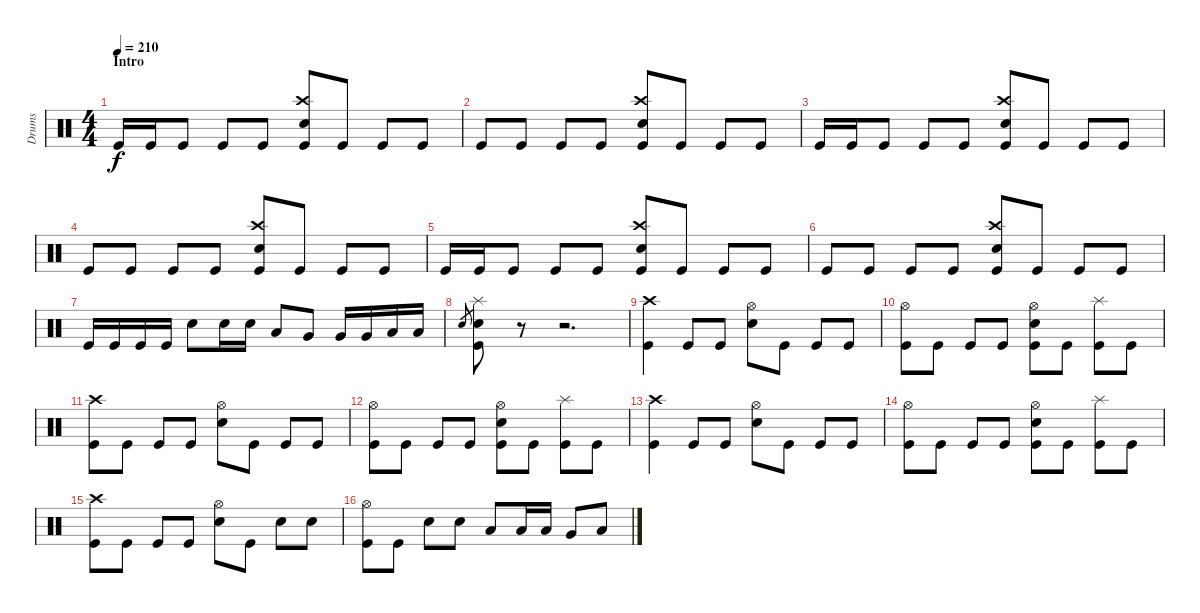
\track ("Drums" "Drums") {instrument percussion}
\staff {score}
\articulation defaults
\ts (4 4)
\section ("" "Intro")
\tempo 210
\clef neutral
\ks c "Kick (hit)".16{dy f} "Kick (hit)".16 "Kick (hit)".8 "Kick (hit)".8 "Kick (hit)".8
("Crash high (hit)" "Snare (hit) 2" "Kick (hit)").8 "Kick (hit)".8 "Kick (hit)".8 "Kick (hit)".8 |
"Kick (hit)".8 "Kick (hit)".8 "Kick (hit)".8 "Kick (hit)".8 ("Crash high (hit)" "Snare (hit) 2" "Kick (hit)").8 "Kick (hit)".8 "Kick (hit)".8 "Kick (hit)".8 |
"Kick (hit)".16 "Kick (hit)".16 "Kick (hit)".8 "Kick (hit)".8 "Kick (hit)".8 ("Crash high (hit)" "Snare (hit) 2" "Kick (hit)").8 "Kick (hit)".8 "Kick (hit)".8 "Kick (hit)".8 |
"Kick (hit)".8 "Kick (hit)".8 "Kick (hit)".8 "Kick (hit)".8 ("Crash high (hit)" "Snare (hit) 2" "Kick (hit)").8 "Kick (hit)".8 "Kick (hit)".8 "Kick (hit)".8 |
"Kick (hit)".16 "Kick (hit)".16 "Kick (hit)".8 "Kick (hit)".8 "Kick (hit)".8 ("Crash high (hit)" "Snare (hit) 2" "Kick (hit)").8 "Kick (hit)".8 "Kick (hit)".8 "Kick (hit)".8 |
"Kick (hit)".8 "Kick (hit)".8 "Kick (hit)".8 "Kick (hit)".8 ("Crash high (hit)" "Snare (hit) 2" "Kick (hit)").8 "Kick (hit)".8 "Kick (hit)".8 "Kick (hit)".8 |
"Kick (hit)".16 "Kick (hit)".16 "Kick (hit)".16 "Kick (hit)".16 "Snare (hit) 2".8 "Snare (hit) 2".16 "Snare (hit) 2".16 "Low Tom (hit)".8 "Very Low Tom (hit)".8 "Very Low Tom (hit)".16 "Very Low Tom (hit)".16 "Low Floor Tom (hit)".16 "Low Floor Tom (hit)".16 |
"Snare (hit) 2"{h}.8{gr} ("Splash (hit)" "Snare (hit) 2" "Kick (hit)").8 r.8 r.2{d} |
("Crash high (hit)" "Kick (hit)").4 "Kick (hit)".8 "Kick (hit)".8 ("Hi-Hat (open)" "Snare (hit) 2").8 "Kick (hit)".8 "Kick (hit)".8 "Kick (hit)".8 |
("Hi-Hat (open)" "Kick (hit)").8 "Kick (hit)".8 "Kick (hit)".8 "Kick (hit)".8 ("Hi-Hat (open)" "Snare (hit) 2" "Kick (hit)").8 "Kick (hit)".8 ("Splash (hit)" "Kick (hit)").8 "Kick (hit)".8 |
("Crash high (hit)" "Kick (hit)").8 "Kick (hit)".8 "Kick (hit)".8 "Kick (hit)".8 ("Hi-Hat (open)" "Snare (hit) 2").8 "Kick (hit)".8 "Kick (hit)".8 "Kick (hit)".8 |
("Hi-Hat (open)" "Kick (hit)").8 "Kick (hit)".8 "Kick (hit)".8 "Kick (hit)".8 ("Hi-Hat (open)" "Snare (hit) 2" "Kick (hit)").8 "Kick (hit)".8 ("Splash (hit)" "Kick (hit)").8 "Kick (hit)".8 |
("Crash high (hit)" "Kick (hit)").4 "Kick (hit)".8 "Kick (hit)".8 ("Hi-Hat (open)" "Snare (hit) 2").8 "Kick (hit)".8 "Kick (hit)".8 "Kick (hit)".8 |
("Hi-Hat (open)" "Kick (hit)").8 "Kick (hit)".8 "Kick (hit)".8 "Kick (hit)".8 ("Hi-Hat (open)" "Snare (hit) 2" "Kick (hit)").8 "Kick (hit)".8 ("Splash (hit)" "Kick (hit)").8 "Kick (hit)".8 |
("Crash high (hit)" "Kick (hit)").8 "Kick (hit)".8 "Kick (hit)".8 "Kick (hit)".8 ("Hi-Hat (open)" "Snare (hit) 2").8 "Kick (hit)".8 "Snare (hit) 2".8 "Snare (hit) 2".8 |
("Hi-Hat (open)" "Kick (hit)").8 "Kick (hit)".8 "Snare (hit) 2".8 "Snare (hit) 2".8 "Low Tom (hit)".8 "Low Tom (hit)".16 "Low Tom (hit)".16 "Very Low Tom (hit)".8 "Low Floor Tom (hit)".8
